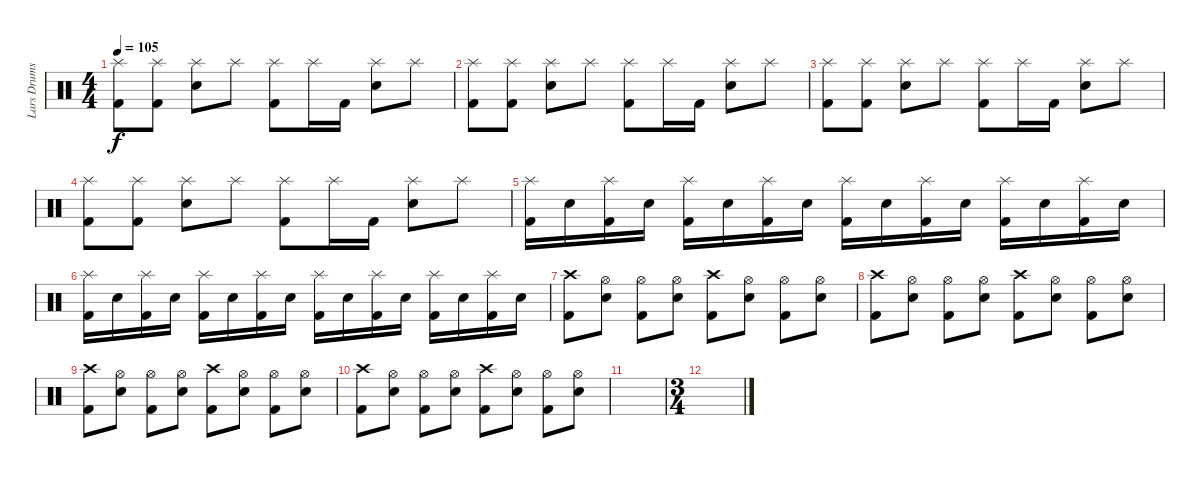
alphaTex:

\track ("Lars Drums" "Lars Drums") {instrument percussion}
\staff {score}
\articulation defaults
\ts (4 4)
\tempo 105
\clef neutral
\ks c
("Splash (hit)" "Kick (hit) 2").8{dy f} ("Splash (hit)" "Kick (hit) 2").8 ("Splash (hit)" "Snare (hit) 2").8 "Splash (hit)".8 ("Splash (hit)" "Kick (hit) 2").8 "Splash (hit)".16 "Kick (hit) 2".16 ("Splash (hit)" "Snare (hit) 2").8 "Splash (hit)".8 |
("Splash (hit)" "Kick (hit) 2").8 ("Splash (hit)" "Kick (hit) 2").8 ("Splash (hit)" "Snare (hit) 2").8 "Splash (hit)".8 ("Splash (hit)" "Kick (hit) 2").8 "Splash (hit)".16 "Kick (hit) 2".16 ("Splash (hit)" "Snare (hit) 2").8 "Splash (hit)".8 |
("Splash (hit)" "Kick (hit) 2").8 ("Splash (hit)" "Kick (hit) 2").8 ("Splash (hit)" "Snare (hit) 2").8 "Splash (hit)".8 ("Splash (hit)" "Kick (hit) 2").8 "Splash (hit)".16 "Kick (hit) 2".16 ("Splash (hit)" "Snare (hit) 2").8 "Splash (hit)".8 |
("Splash (hit)" "Kick (hit) 2").8 ("Splash (hit)" "Kick (hit) 2").8 ("Splash (hit)" "Snare (hit) 2").8 "Splash (hit)".8 ("Splash (hit)" "Kick (hit) 2").8 "Splash (hit)".16 "Kick (hit) 2".16 ("Splash (hit)" "Snare (hit) 2").8 "Splash (hit)".8 |
("Splash (hit)" "Kick (hit) 2").16 "Snare (hit) 2".16 ("Splash (hit)" "Kick (hit) 2").16 "Snare (hit) 2".16 ("Splash (hit)" "Kick (hit) 2").16 "Snare (hit) 2".16 ("Splash (hit)" "Kick (hit) 2").16 "Snare (hit) 2".16 ("Splash (hit)" "Kick (hit) 2").16 "Snare (hit) 2".16 ("Splash (hit)" "Kick (hit) 2").16 "Snare (hit) 2".16 ("Splash (hit)" "Kick (hit) 2").16 "Snare (hit) 2".16 ("Splash (hit)" "Kick (hit) 2").16 "Snare (hit) 2".16 |
("Splash (hit)" "Kick (hit) 2").16 "Snare (hit) 2".16 ("Splash (hit)" "Kick (hit) 2").16 "Snare (hit) 2".16 ("Splash (hit)" "Kick (hit) 2").16 "Snare (hit) 2".16 ("Splash (hit)" "Kick (hit) 2").16 "Snare (hit) 2".16 ("Splash (hit)" "Kick (hit) 2").16 "Snare (hit) 2".16 ("Splash (hit)" "Kick (hit) 2").16 "Snare (hit) 2".16 ("Splash (hit)" "Kick (hit) 2").16 "Snare (hit) 2".16 ("Splash (hit)" "Kick (hit) 2").16 "Snare (hit) 2".16 |
("Crash high (hit)" "Kick (hit) 2").8 ("Hi-Hat (open)" "Snare (hit) 2").8 ("Hi-Hat (open)" "Kick (hit) 2").8 ("Hi-Hat (open)" "Snare (hit) 2").8 ("Crash high (hit)" "Kick (hit) 2").8 ("Hi-Hat (open)" "Snare (hit) 2").8 ("Hi-Hat (open)" "Kick (hit) 2").8 ("Hi-Hat (open)" "Snare (hit) 2").8 |
("Crash high (hit)" "Kick (hit) 2").8 ("Hi-Hat (open)" "Snare (hit) 2").8 ("Hi-Hat (open)" "Kick (hit) 2").8 ("Hi-Hat (open)" "Snare (hit) 2").8 ("Crash high (hit)" "Kick (hit) 2").8 ("Hi-Hat (open)" "Snare (hit) 2").8 ("Hi-Hat (open)" "Kick (hit) 2").8 ("Hi-Hat (open)" "Snare (hit) 2").8 |
("Crash high (hit)" "Kick (hit) 2").8 ("Hi-Hat (open)" "Snare (hit) 2").8 ("Hi-Hat (open)" "Kick (hit) 2").8 ("Hi-Hat (open)" "Snare (hit) 2").8 ("Crash high (hit)" "Kick (hit) 2").8 ("Hi-Hat (open)" "Snare (hit) 2").8 ("Hi-Hat (open)" "Kick (hit) 2").8 ("Hi-Hat (open)" "Snare (hit) 2").8 |
("Crash high (hit)" "Kick (hit) 2").8 ("Hi-Hat (open)" "Snare (hit) 2").8 ("Hi-Hat (open)" "Kick (hit) 2").8 ("Hi-Hat (open)" "Snare (hit) 2").8 ("Crash high (hit)" "Kick (hit) 2").8 ("Hi-Hat (open)" "Snare (hit) 2").8 ("Hi-Hat (open)" "Kick (hit) 2").8 ("Hi-Hat (open)" "Snare (hit) 2").8 |
|
\ts (3 4)
